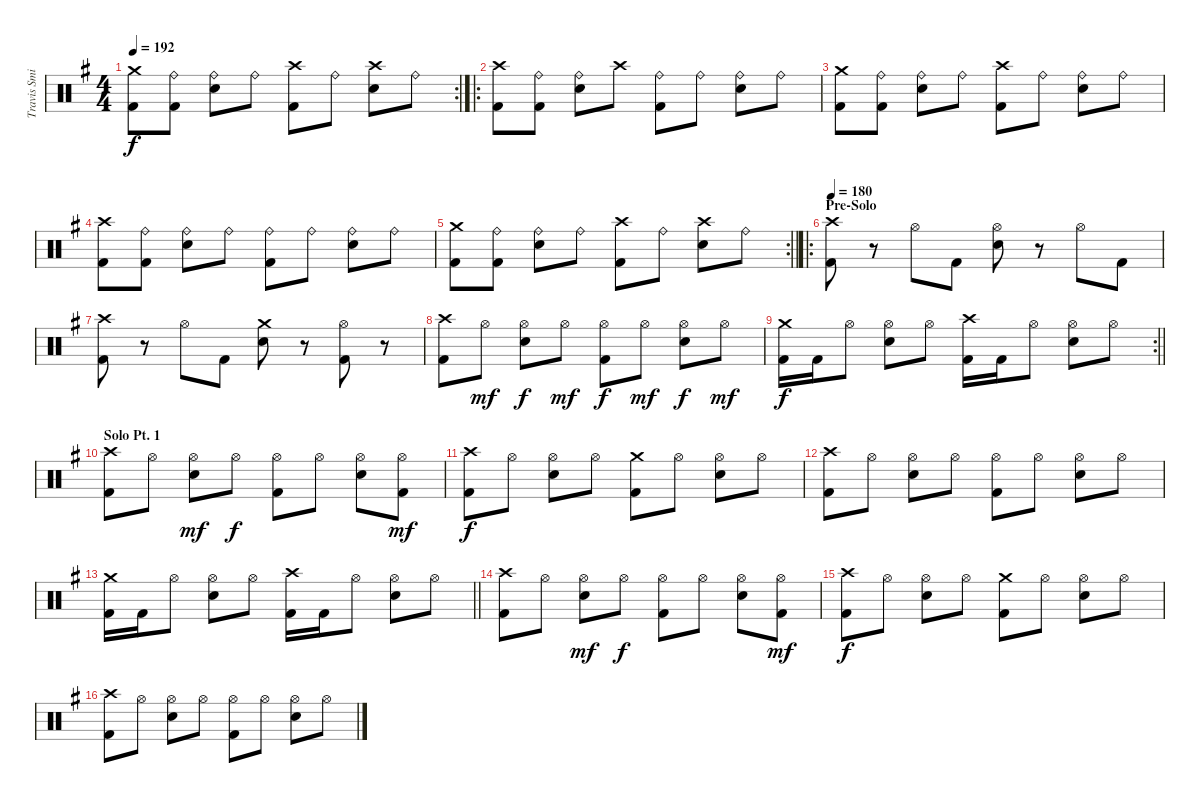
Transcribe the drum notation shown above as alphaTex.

\track ("Travis Smith" "Travis Smi") {instrument percussion}
\staff {score}
\articulation defaults
\rc 2
\ts (4 4)
\tempo 192
\clef neutral
\ks eminor
("Crash medium (hit)" "Kick (hit) 2").8{dy f} ("Ride (bell)" "Kick (hit) 2").8 ("Ride (bell)" "Snare (hit) 2").8 "Ride (bell)".8 ("Crash high (hit)" "Kick (hit) 2").8 "Ride (bell)".8 ("Crash high (hit)" "Snare (hit) 2").8 "Ride (bell)".8 |
\ro
("Crash high (hit)" "Kick (hit) 2").8 ("Ride (bell)" "Kick (hit) 2").8 ("Ride (bell)" "Snare (hit) 2").8 "Crash high (hit)".8 ("Ride (bell)" "Kick (hit) 2").8 "Ride (bell)".8 ("Ride (bell)" "Snare (hit) 2").8 "Ride (bell)".8 |
("Crash medium (hit)" "Kick (hit) 2").8 ("Ride (bell)" "Kick (hit) 2").8 ("Ride (bell)" "Snare (hit) 2").8 "Ride (bell)".8 ("Crash high (hit)" "Kick (hit) 2").8 "Ride (bell)".8 ("Ride (bell)" "Snare (hit) 2").8 "Ride (bell)".8 |
("Crash high (hit)" "Kick (hit) 2").8 ("Ride (bell)" "Kick (hit) 2").8 ("Ride (bell)" "Snare (hit) 2").8 "Ride (bell)".8 ("Ride (bell)" "Kick (hit) 2").8 "Ride (bell)".8 ("Ride (bell)" "Snare (hit) 2").8 "Ride (bell)".8 |
\rc 2
\barLineRight lightlight
("Crash medium (hit)" "Kick (hit) 2").8 ("Ride (bell)" "Kick (hit) 2").8 ("Ride (bell)" "Snare (hit) 2").8 "Ride (bell)".8 ("Crash high (hit)" "Kick (hit) 2").8 "Ride (bell)".8 ("Crash high (hit)" "Snare (hit) 2").8 "Ride (bell)".8 |
\ro
\section ("" "Pre-Solo")
\tempo 180
("Crash high (hit)" "Kick (hit) 2").8 r.8 "Hi-Hat (open)".8 "Kick (hit) 2".8 ("Hi-Hat (open)" "Snare (hit) 2").8 r.8 "Hi-Hat (open)".8 "Kick (hit) 2".8 |
("Crash high (hit)" "Kick (hit) 2").8 r.8 "Hi-Hat (open)".8 "Kick (hit) 2".8 ("Crash medium (hit)" "Snare (hit) 2").8 r.8 ("Hi-Hat (open)" "Kick (hit) 2").8 r.8 |
("Crash high (hit)" "Kick (hit) 2").8 "Hi-Hat (open)".8{dy mf} ("Hi-Hat (open)" "Snare (hit) 2").8{dy f} "Hi-Hat (open)".8{dy mf} ("Hi-Hat (open)" "Kick (hit) 2").8{dy f} "Hi-Hat (open)".8{dy mf} ("Hi-Hat (open)" "Snare (hit) 2").8{dy f} "Hi-Hat (open)".8{dy mf} |
\rc 2
\barLineRight lightlight
("Crash medium (hit)" "Kick (hit) 2").16{dy f} "Kick (hit) 2".16 "Hi-Hat (open)".8 ("Hi-Hat (open)" "Snare (hit) 2").8 "Hi-Hat (open)".8 ("Crash high (hit)" "Kick (hit) 2").16 "Kick (hit) 2".16 "Hi-Hat (open)".8 ("Hi-Hat (open)" "Snare (hit) 2").8 "Hi-Hat (open)".8 |
\section ("" "Solo Pt. 1")
("Crash high (hit)" "Kick (hit) 2").8 "Hi-Hat (open)".8 ("Hi-Hat (open)" "Snare (hit) 2").8{dy mf} "Hi-Hat (open)".8{dy f} ("Hi-Hat (open)" "Kick (hit) 2").8 "Hi-Hat (open)".8 ("Hi-Hat (open)" "Snare (hit) 2").8 ("Hi-Hat (open)" "Kick (hit) 2").8{dy mf} |
("Crash high (hit)" "Kick (hit) 2").8{dy f} "Hi-Hat (open)".8 ("Hi-Hat (open)" "Snare (hit) 2").8 "Hi-Hat (open)".8 ("Crash medium (hit)" "Kick (hit) 2").8 "Hi-Hat (open)".8 ("Hi-Hat (open)" "Snare (hit) 2").8 "Hi-Hat (open)".8 |
("Crash high (hit)" "Kick (hit) 2").8 "Hi-Hat (open)".8 ("Hi-Hat (open)" "Snare (hit) 2").8 "Hi-Hat (open)".8 ("Hi-Hat (open)" "Kick (hit) 2").8 "Hi-Hat (open)".8 ("Hi-Hat (open)" "Snare (hit) 2").8 "Hi-Hat (open)".8 |
\barLineRight lightlight
("Crash medium (hit)" "Kick (hit) 2").16 "Kick (hit) 2".16 "Hi-Hat (open)".8 ("Hi-Hat (open)" "Snare (hit) 2").8 "Hi-Hat (open)".8 ("Crash high (hit)" "Kick (hit) 2").16 "Kick (hit) 2".16 "Hi-Hat (open)".8 ("Hi-Hat (open)" "Snare (hit) 2").8 "Hi-Hat (open)".8 |
("Crash high (hit)" "Kick (hit) 2").8 "Hi-Hat (open)".8 ("Hi-Hat (open)" "Snare (hit) 2").8{dy mf} "Hi-Hat (open)".8{dy f} ("Hi-Hat (open)" "Kick (hit) 2").8 "Hi-Hat (open)".8 ("Hi-Hat (open)" "Snare (hit) 2").8 ("Hi-Hat (open)" "Kick (hit) 2").8{dy mf} |
("Crash high (hit)" "Kick (hit) 2").8{dy f} "Hi-Hat (open)".8 ("Hi-Hat (open)" "Snare (hit) 2").8 "Hi-Hat (open)".8 ("Crash medium (hit)" "Kick (hit) 2").8 "Hi-Hat (open)".8 ("Hi-Hat (open)" "Snare (hit) 2").8 "Hi-Hat (open)".8 |
("Crash high (hit)" "Kick (hit) 2").8 "Hi-Hat (open)".8 ("Hi-Hat (open)" "Snare (hit) 2").8 "Hi-Hat (open)".8 ("Hi-Hat (open)" "Kick (hit) 2").8 "Hi-Hat (open)".8 ("Hi-Hat (open)" "Snare (hit) 2").8 "Hi-Hat (open)".8
